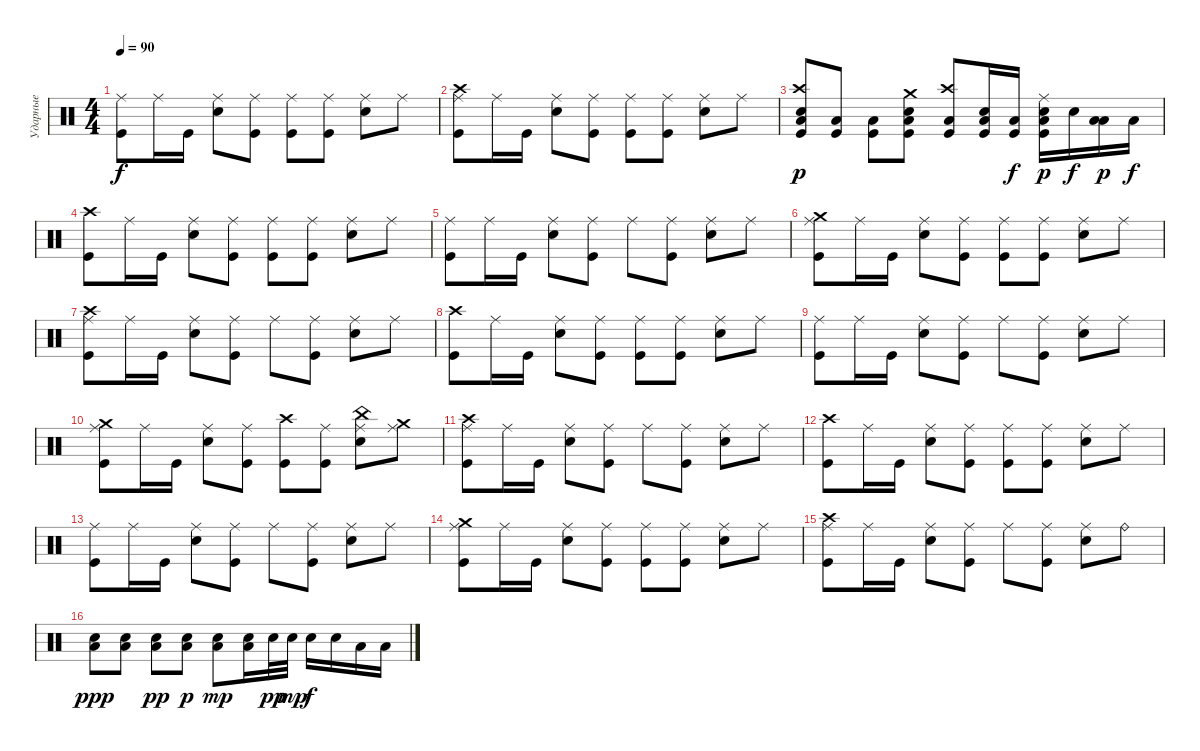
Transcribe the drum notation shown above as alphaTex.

\track ("Ударные" "Ударные") {instrument percussion}
\staff {score}
\articulation defaults
\ts (4 4)
\tempo 90
\clef neutral
\ks c
("Ride (middle)" "Kick (hit)").8{dy f} "Ride (middle)".16 "Kick (hit)".16 ("Ride (middle)" "Electric Snare (hit)").8 ("Ride (middle)" "Kick (hit)").8 ("Ride (middle)" "Kick (hit)").8 ("Ride (middle)" "Kick (hit)").8 ("Ride (middle)" "Electric Snare (hit)").8 "Ride (middle)".8 |
("Ride (middle)" "Crash high (hit)" "Kick (hit)").8 "Ride (middle)".16 "Kick (hit)".16 ("Ride (middle)" "Electric Snare (hit)").8 ("Ride (middle)" "Kick (hit)").8 ("Ride (middle)" "Kick (hit)").8 ("Ride (middle)" "Kick (hit)").8 ("Ride (middle)" "Electric Snare (hit)").8 "Ride (middle)".8 |
("Crash high (hit)" "Electric Snare (hit)" "Low Floor Tom (hit)" "Kick (hit)").8{dy p} ("Low Floor Tom (hit)" "Kick (hit)").8 ("Low Floor Tom (hit)" "Kick (hit)").8 ("Crash medium (hit)" "Low Floor Tom (hit)" "Electric Snare (hit)" "Kick (hit)").8 ("Crash high (hit)" "Low Floor Tom (hit)" "Kick (hit)").8 ("Low Floor Tom (hit)" "Electric Snare (hit)" "Kick (hit)").16 ("Low Floor Tom (hit)" "Kick (hit)").16{dy f} ("Ride (middle)" "Low Floor Tom (hit)" "Electric Snare (hit)" "Kick (hit)").16{dy p} "Electric Snare (hit)".16{dy f} ("Low Floor Tom (hit)" "Low Tom (hit)").16{dy p} "Low Floor Tom (hit)".16{dy f} |
("Crash high (hit)" "Kick (hit)").8 "Ride (middle)".16 "Kick (hit)".16 ("Ride (middle)" "Electric Snare (hit)").8 ("Ride (middle)" "Kick (hit)").8 ("Ride (middle)" "Kick (hit)").8 ("Ride (middle)" "Kick (hit)").8 ("Ride (middle)" "Electric Snare (hit)").8 "Ride (middle)".8 |
("Ride (middle)" "Kick (hit)").8 "Ride (middle)".16 "Kick (hit)".16 ("Ride (middle)" "Electric Snare (hit)").8 ("Ride (middle)" "Kick (hit)").8 "Ride (middle)".8 ("Ride (middle)" "Kick (hit)").8 ("Ride (middle)" "Electric Snare (hit)").8 "Ride (middle)".8 |
("Ride (middle)" "Crash medium (hit)" "Kick (hit)").8 "Ride (middle)".16 "Kick (hit)".16 ("Ride (middle)" "Electric Snare (hit)").8 ("Ride (middle)" "Kick (hit)").8 ("Ride (middle)" "Kick (hit)").8 ("Ride (middle)" "Kick (hit)").8 ("Ride (middle)" "Electric Snare (hit)").8 "Ride (middle)".8 |
("Ride (middle)" "Crash high (hit)" "Kick (hit)").8 "Ride (middle)".16 "Kick (hit)".16 ("Ride (middle)" "Electric Snare (hit)").8 ("Ride (middle)" "Kick (hit)").8 "Ride (middle)".8 ("Ride (middle)" "Kick (hit)").8 ("Ride (middle)" "Electric Snare (hit)").8 "Ride (middle)".8 |
("Crash high (hit)" "Kick (hit)").8 "Ride (middle)".16 "Kick (hit)".16 ("Ride (middle)" "Electric Snare (hit)").8 ("Ride (middle)" "Kick (hit)").8 ("Ride (middle)" "Kick (hit)").8 ("Ride (middle)" "Kick (hit)").8 ("Ride (middle)" "Electric Snare (hit)").8 "Ride (middle)".8 |
("Ride (middle)" "Kick (hit)").8 "Ride (middle)".16 "Kick (hit)".16 ("Ride (middle)" "Electric Snare (hit)").8 ("Ride (middle)" "Kick (hit)").8 "Ride (middle)".8 ("Ride (middle)" "Kick (hit)").8 ("Ride (middle)" "Electric Snare (hit)").8 "Ride (middle)".8 |
("Ride (middle)" "Crash medium (hit)" "Kick (hit)").8 "Ride (middle)".16 "Kick (hit)".16 ("Ride (middle)" "Electric Snare (hit)").8 ("Ride (middle)" "Kick (hit)").8 ("Crash high (hit)" "Kick (hit)").8 ("Ride (middle)" "Kick (hit)").8 ("Ride (middle)" "China (hit)" "Electric Snare (hit)").8 ("Ride (middle)" "Crash medium (hit)").8 |
("Ride (middle)" "Crash high (hit)" "Kick (hit)").8 "Ride (middle)".16 "Kick (hit)".16 ("Ride (middle)" "Electric Snare (hit)").8 ("Ride (middle)" "Kick (hit)").8 "Ride (middle)".8 ("Ride (middle)" "Kick (hit)").8 ("Ride (middle)" "Electric Snare (hit)").8 "Ride (middle)".8 |
("Crash high (hit)" "Kick (hit)").8 "Ride (middle)".16 "Kick (hit)".16 ("Ride (middle)" "Electric Snare (hit)").8 ("Ride (middle)" "Kick (hit)").8 ("Ride (middle)" "Kick (hit)").8 ("Ride (middle)" "Kick (hit)").8 ("Ride (middle)" "Electric Snare (hit)").8 "Ride (middle)".8 |
("Ride (middle)" "Kick (hit)").8 "Ride (middle)".16 "Kick (hit)".16 ("Ride (middle)" "Electric Snare (hit)").8 ("Ride (middle)" "Kick (hit)").8 "Ride (middle)".8 ("Ride (middle)" "Kick (hit)").8 ("Ride (middle)" "Electric Snare (hit)").8 "Ride (middle)".8 |
("Ride (middle)" "Crash medium (hit)" "Kick (hit)").8 "Ride (middle)".16 "Kick (hit)".16 ("Ride (middle)" "Electric Snare (hit)").8 ("Ride (middle)" "Kick (hit)").8 ("Ride (middle)" "Kick (hit)").8 ("Ride (middle)" "Kick (hit)").8 ("Ride (middle)" "Electric Snare (hit)").8 "Ride (middle)".8 |
("Ride (middle)" "Crash high (hit)" "Kick (hit)").8 "Ride (middle)".16 "Kick (hit)".16 ("Ride (middle)" "Electric Snare (hit)").8 ("Ride (middle)" "Kick (hit)").8 "Ride (middle)".8 ("Ride (middle)" "Kick (hit)").8 ("Ride (middle)" "Electric Snare (hit)").8 "Ride (bell)".8 |
("Low Floor Tom (hit)" "Electric Snare (hit)").8{dy ppp} ("Low Floor Tom (hit)" "Electric Snare (hit)").8 ("Low Floor Tom (hit)" "Electric Snare (hit)").8{dy pp} ("Low Floor Tom (hit)" "Electric Snare (hit)").8{dy p} ("Low Floor Tom (hit)" "Electric Snare (hit)").8{dy mp} ("Low Floor Tom (hit)" "Electric Snare (hit)").16 "Electric Snare (hit)".32{dy pp} "Electric Snare (hit)".32{dy mp} "Electric Snare (hit)".16{dy f} "Electric Snare (hit)".16 "Low Tom (hit)".16 "Low Floor Tom (hit)".16
